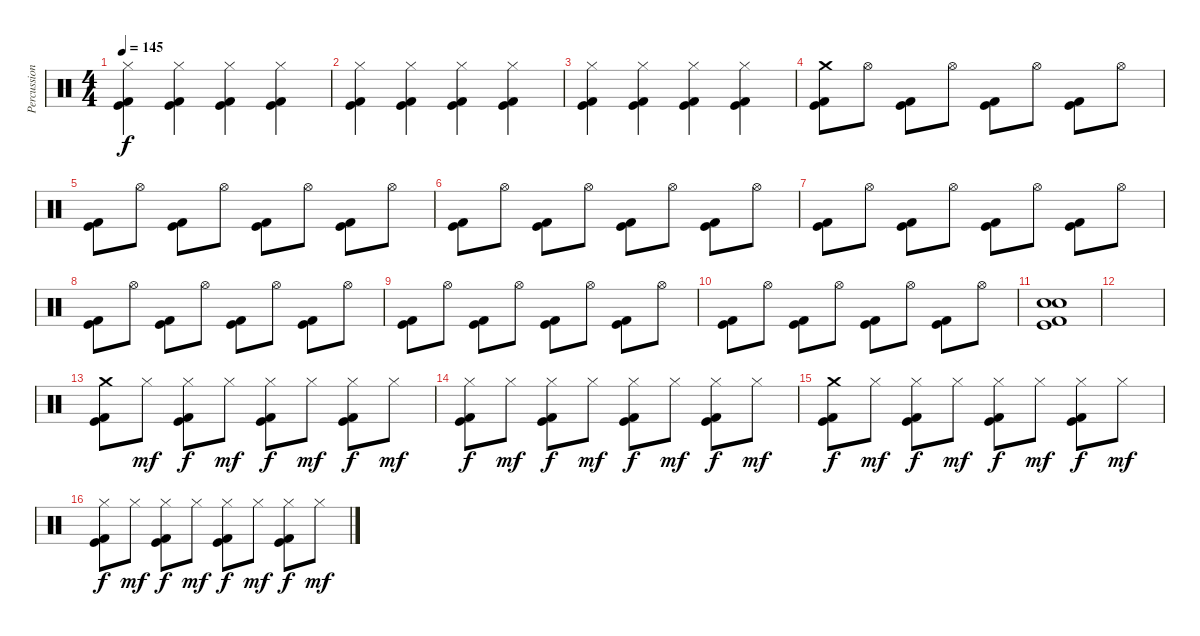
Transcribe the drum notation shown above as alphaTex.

\track ("Percussion" "Percussion") {instrument percussion}
\staff {score}
\articulation defaults
\ts (4 4)
\tempo 145
\clef neutral
\ks c
("Hi-Hat (closed)" "Kick (hit)" "Kick (hit) 2").4{dy f} ("Hi-Hat (closed)" "Kick (hit)" "Kick (hit) 2").4 ("Hi-Hat (closed)" "Kick (hit)" "Kick (hit) 2").4 ("Hi-Hat (closed)" "Kick (hit)" "Kick (hit) 2").4 |
("Hi-Hat (closed)" "Kick (hit)" "Kick (hit) 2").4 ("Hi-Hat (closed)" "Kick (hit)" "Kick (hit) 2").4 ("Hi-Hat (closed)" "Kick (hit)" "Kick (hit) 2").4 ("Hi-Hat (closed)" "Kick (hit)" "Kick (hit) 2").4 |
("Hi-Hat (closed)" "Kick (hit)" "Kick (hit) 2").4 ("Hi-Hat (closed)" "Kick (hit)" "Kick (hit) 2").4 ("Hi-Hat (closed)" "Kick (hit)" "Kick (hit) 2").4 ("Hi-Hat (closed)" "Kick (hit)" "Kick (hit) 2").4 |
("Crash medium (hit)" "Kick (hit)" "Kick (hit) 2").8 "Hi-Hat (open)".8 ("Kick (hit)" "Kick (hit) 2").8 "Hi-Hat (open)".8 ("Kick (hit)" "Kick (hit) 2").8 "Hi-Hat (open)".8 ("Kick (hit)" "Kick (hit) 2").8 "Hi-Hat (open)".8 |
("Kick (hit)" "Kick (hit) 2").8 "Hi-Hat (open)".8 ("Kick (hit)" "Kick (hit) 2").8 "Hi-Hat (open)".8 ("Kick (hit)" "Kick (hit) 2").8 "Hi-Hat (open)".8 ("Kick (hit)" "Kick (hit) 2").8 "Hi-Hat (open)".8 |
("Kick (hit)" "Kick (hit) 2").8 "Hi-Hat (open)".8 ("Kick (hit)" "Kick (hit) 2").8 "Hi-Hat (open)".8 ("Kick (hit)" "Kick (hit) 2").8 "Hi-Hat (open)".8 ("Kick (hit)" "Kick (hit) 2").8 "Hi-Hat (open)".8 |
("Kick (hit)" "Kick (hit) 2").8 "Hi-Hat (open)".8 ("Kick (hit)" "Kick (hit) 2").8 "Hi-Hat (open)".8 ("Kick (hit)" "Kick (hit) 2").8 "Hi-Hat (open)".8 ("Kick (hit)" "Kick (hit) 2").8 "Hi-Hat (open)".8 |
("Kick (hit)" "Kick (hit) 2").8 "Hi-Hat (open)".8 ("Kick (hit)" "Kick (hit) 2").8 "Hi-Hat (open)".8 ("Kick (hit)" "Kick (hit) 2").8 "Hi-Hat (open)".8 ("Kick (hit)" "Kick (hit) 2").8 "Hi-Hat (open)".8 |
("Kick (hit)" "Kick (hit) 2").8 "Hi-Hat (open)".8 ("Kick (hit)" "Kick (hit) 2").8 "Hi-Hat (open)".8 ("Kick (hit)" "Kick (hit) 2").8 "Hi-Hat (open)".8 ("Kick (hit)" "Kick (hit) 2").8 "Hi-Hat (open)".8 |
("Kick (hit)" "Kick (hit) 2").8 "Hi-Hat (open)".8 ("Kick (hit)" "Kick (hit) 2").8 "Hi-Hat (open)".8 ("Kick (hit)" "Kick (hit) 2").8 "Hi-Hat (open)".8 ("Kick (hit)" "Kick (hit) 2").8 "Hi-Hat (open)".8 |
("Snare (hit) 2" "Electric Snare (hit)" "Kick (hit)" "Kick (hit) 2").1 |
|
("Crash medium (hit)" "Kick (hit)" "Kick (hit) 2").8 "Hi-Hat (closed)".8{dy mf} ("Hi-Hat (closed)" "Kick (hit)" "Kick (hit) 2").8{dy f} "Hi-Hat (closed)".8{dy mf} ("Hi-Hat (closed)" "Kick (hit)" "Kick (hit) 2").8{dy f} "Hi-Hat (closed)".8{dy mf} ("Hi-Hat (closed)" "Kick (hit)" "Kick (hit) 2").8{dy f} "Hi-Hat (closed)".8{dy mf} |
("Hi-Hat (closed)" "Kick (hit)" "Kick (hit) 2").8{dy f} "Hi-Hat (closed)".8{dy mf} ("Hi-Hat (closed)" "Kick (hit)" "Kick (hit) 2").8{dy f} "Hi-Hat (closed)".8{dy mf} ("Hi-Hat (closed)" "Kick (hit)" "Kick (hit) 2").8{dy f} "Hi-Hat (closed)".8{dy mf} ("Hi-Hat (closed)" "Kick (hit)" "Kick (hit) 2").8{dy f} "Hi-Hat (closed)".8{dy mf} |
("Crash medium (hit)" "Kick (hit)" "Kick (hit) 2").8{dy f} "Hi-Hat (closed)".8{dy mf} ("Hi-Hat (closed)" "Kick (hit)" "Kick (hit) 2").8{dy f} "Hi-Hat (closed)".8{dy mf} ("Hi-Hat (closed)" "Kick (hit)" "Kick (hit) 2").8{dy f} "Hi-Hat (closed)".8{dy mf} ("Hi-Hat (closed)" "Kick (hit)" "Kick (hit) 2").8{dy f} "Hi-Hat (closed)".8{dy mf} |
("Hi-Hat (closed)" "Kick (hit)" "Kick (hit) 2").8{dy f} "Hi-Hat (closed)".8{dy mf} ("Hi-Hat (closed)" "Kick (hit)" "Kick (hit) 2").8{dy f} "Hi-Hat (closed)".8{dy mf} ("Hi-Hat (closed)" "Kick (hit)" "Kick (hit) 2").8{dy f} "Hi-Hat (closed)".8{dy mf} ("Hi-Hat (closed)" "Kick (hit)" "Kick (hit) 2").8{dy f} "Hi-Hat (closed)".8{dy mf}
